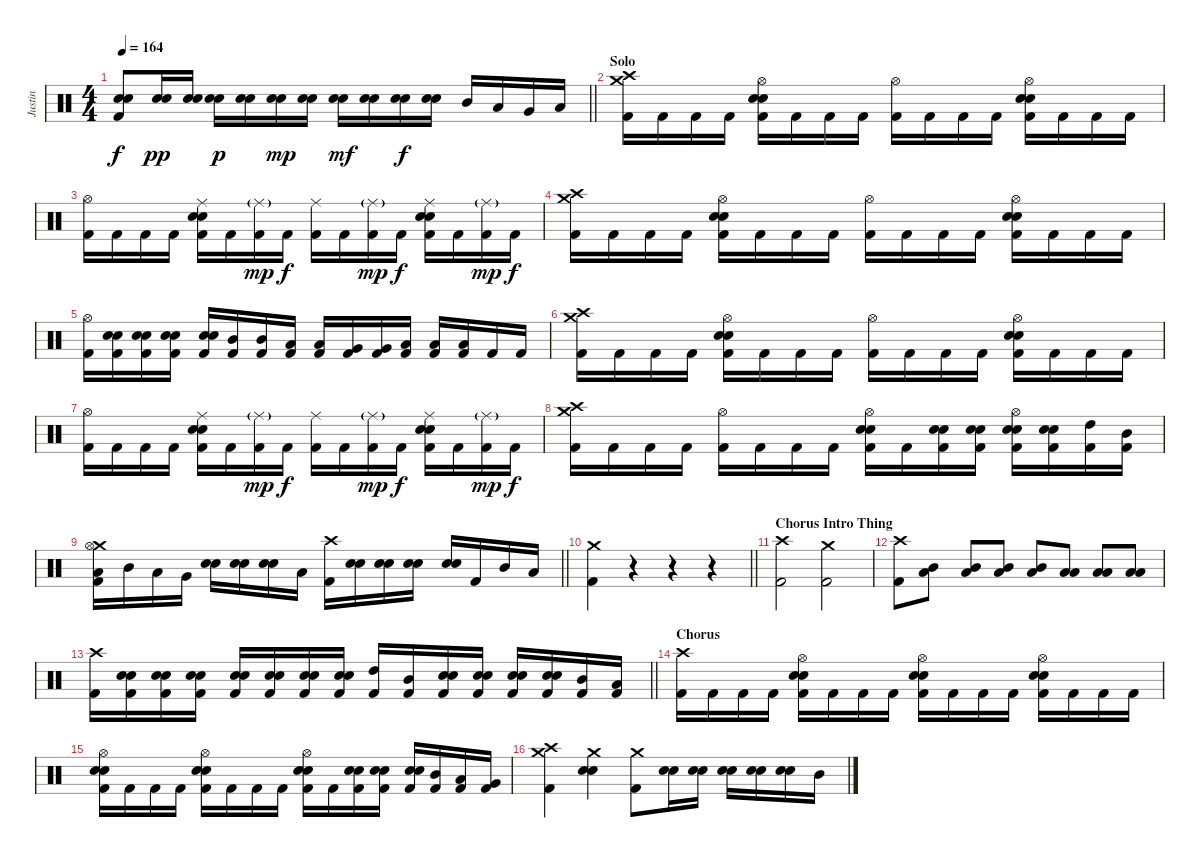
\track ("Justin" "Justin") {instrument percussion}
\staff {score}
\articulation defaults
\ts (4 4)
\tempo 164
\clef neutral
\barLineRight lightlight
\ks c
("Electric Snare (hit)" "Snare (hit) 2" "Kick (hit) 2").8{dy f} ("Electric Snare (hit)" "Snare (hit) 2").16{dy pp} ("Electric Snare (hit)" "Snare (hit) 2").16 ("Electric Snare (hit)" "Snare (hit) 2").16{dy p} ("Electric Snare (hit)" "Snare (hit) 2").16 ("Electric Snare (hit)" "Snare (hit) 2").16{dy mp} ("Electric Snare (hit)" "Snare (hit) 2").16 ("Electric Snare (hit)" "Snare (hit) 2").16{dy mf} ("Electric Snare (hit)" "Snare (hit) 2").16 ("Electric Snare (hit)" "Snare (hit) 2").16{dy f} ("Electric Snare (hit)" "Snare (hit) 2").16 "Mid Tom (hit)".16 "Low Tom (hit)".16 "Very Low Tom (hit)".16 "Low Floor Tom (hit)".16 |
\section ("" "Solo")
("Crash medium (hit)" "Crash high (hit)" "Kick (hit) 2").16 "Kick (hit) 2".16 "Kick (hit) 2".16 "Kick (hit) 2".16 ("Hi-Hat (open)" "Electric Snare (hit)" "Snare (hit) 2" "Kick (hit) 2").16 "Kick (hit) 2".16 "Kick (hit) 2".16 "Kick (hit) 2".16 ("Hi-Hat (open)" "Kick (hit) 2").16 "Kick (hit) 2".16 "Kick (hit) 2".16 "Kick (hit) 2".16 ("Hi-Hat (open)" "Electric Snare (hit)" "Snare (hit) 2" "Kick (hit) 2").16 "Kick (hit) 2".16 "Kick (hit) 2".16 "Kick (hit) 2".16 |
("Hi-Hat (open)" "Kick (hit) 2").16 "Kick (hit) 2".16 "Kick (hit) 2".16 "Kick (hit) 2".16 ("Ride (middle)" "Electric Snare (hit)" "Snare (hit) 2" "Kick (hit) 2").16 "Kick (hit) 2".16 ("Ride (middle)"{g} "Kick (hit) 2").16{dy mp} "Kick (hit) 2".16{dy f} ("Ride (middle)" "Kick (hit) 2").16 "Kick (hit) 2".16 ("Ride (middle)"{g} "Kick (hit) 2").16{dy mp} "Kick (hit) 2".16{dy f} ("Ride (middle)" "Electric Snare (hit)" "Snare (hit) 2" "Kick (hit) 2").16 "Kick (hit) 2".16 ("Ride (middle)"{g} "Kick (hit) 2").16{dy mp} "Kick (hit) 2".16{dy f} |
("Crash medium (hit)" "Crash high (hit)" "Kick (hit) 2").16 "Kick (hit) 2".16 "Kick (hit) 2".16 "Kick (hit) 2".16 ("Hi-Hat (open)" "Electric Snare (hit)" "Snare (hit) 2" "Kick (hit) 2").16 "Kick (hit) 2".16 "Kick (hit) 2".16 "Kick (hit) 2".16 ("Hi-Hat (open)" "Kick (hit) 2").16 "Kick (hit) 2".16 "Kick (hit) 2".16 "Kick (hit) 2".16 ("Hi-Hat (open)" "Electric Snare (hit)" "Snare (hit) 2" "Kick (hit) 2").16 "Kick (hit) 2".16 "Kick (hit) 2".16 "Kick (hit) 2".16 |
("Hi-Hat (open)" "Kick (hit) 2").16 ("Electric Snare (hit)" "Snare (hit) 2" "Kick (hit) 2").16 ("Electric Snare (hit)" "Snare (hit) 2" "Kick (hit) 2").16 ("Electric Snare (hit)" "Snare (hit) 2" "Kick (hit) 2").16 ("Electric Snare (hit)" "Snare (hit) 2" "Kick (hit) 2").16 ("Mid Tom (hit)" "Kick (hit) 2").16 ("Mid Tom (hit)" "Kick (hit) 2").16 ("Low Tom (hit)" "Kick (hit) 2").16 ("Low Tom (hit)" "Kick (hit) 2").16 ("Very Low Tom (hit)" "Kick (hit) 2").16 ("Very Low Tom (hit)" "Kick (hit) 2").16 ("Low Floor Tom (hit)" "Kick (hit) 2").16 ("Low Floor Tom (hit)" "Kick (hit) 2").16 ("Low Floor Tom (hit)" "Kick (hit) 2").16 "Kick (hit) 2".16 "Kick (hit) 2".16 |
("Crash medium (hit)" "Crash high (hit)" "Kick (hit) 2").16 "Kick (hit) 2".16 "Kick (hit) 2".16 "Kick (hit) 2".16 ("Hi-Hat (open)" "Electric Snare (hit)" "Snare (hit) 2" "Kick (hit) 2").16 "Kick (hit) 2".16 "Kick (hit) 2".16 "Kick (hit) 2".16 ("Hi-Hat (open)" "Kick (hit) 2").16 "Kick (hit) 2".16 "Kick (hit) 2".16 "Kick (hit) 2".16 ("Hi-Hat (open)" "Electric Snare (hit)" "Snare (hit) 2" "Kick (hit) 2").16 "Kick (hit) 2".16 "Kick (hit) 2".16 "Kick (hit) 2".16 |
("Hi-Hat (open)" "Kick (hit) 2").16 "Kick (hit) 2".16 "Kick (hit) 2".16 "Kick (hit) 2".16 ("Ride (middle)" "Electric Snare (hit)" "Snare (hit) 2" "Kick (hit) 2").16 "Kick (hit) 2".16 ("Ride (middle)"{g} "Kick (hit) 2").16{dy mp} "Kick (hit) 2".16{dy f} ("Ride (middle)" "Kick (hit) 2").16 "Kick (hit) 2".16 ("Ride (middle)"{g} "Kick (hit) 2").16{dy mp} "Kick (hit) 2".16{dy f} ("Ride (middle)" "Electric Snare (hit)" "Snare (hit) 2" "Kick (hit) 2").16 "Kick (hit) 2".16 ("Ride (middle)"{g} "Kick (hit) 2").16{dy mp} "Kick (hit) 2".16{dy f} |
("Crash medium (hit)" "Crash high (hit)" "Kick (hit) 2").16 "Kick (hit) 2".16 "Kick (hit) 2".16 "Kick (hit) 2".16 ("Hi-Hat (open)" "Kick (hit) 2").16 "Kick (hit) 2".16 "Kick (hit) 2".16 "Kick (hit) 2".16 ("Hi-Hat (open)" "Electric Snare (hit)" "Snare (hit) 2" "Kick (hit) 2").16 "Kick (hit) 2".16 ("Electric Snare (hit)" "Snare (hit) 2" "Kick (hit) 2").16 ("Electric Snare (hit)" "Snare (hit) 2" "Kick (hit) 2").16 ("Hi-Hat (open)" "Electric Snare (hit)" "Snare (hit) 2" "Kick (hit) 2").16 ("Electric Snare (hit)" "Snare (hit) 2" "Kick (hit) 2").16 ("High Tom (hit)" "Kick (hit) 2").16 ("Mid Tom (hit)" "Kick (hit) 2").16 |
\barLineRight lightlight
("Crash medium (hit)" "Hi-Hat (open)" "Low Tom (hit)" "Kick (hit) 2").16 "Mid Tom (hit)".16 "Low Tom (hit)".16 "Very Low Tom (hit)".16 ("Electric Snare (hit)" "Snare (hit) 2").16 ("Electric Snare (hit)" "Snare (hit) 2").16 ("Electric Snare (hit)" "Snare (hit) 2").16 "Low Tom (hit)".16 ("Crash high (hit)" "Kick (hit) 2").16 ("Electric Snare (hit)" "Snare (hit) 2").16 ("Electric Snare (hit)" "Snare (hit) 2").16 ("Electric Snare (hit)" "Snare (hit) 2").16 ("Electric Snare (hit)" "Snare (hit) 2").16 "Kick (hit) 2".16 "Mid Tom (hit)".16 "Low Tom (hit)".16 |
\barLineRight lightlight
("Crash medium (hit)" "Kick (hit) 2").4 r.4{volume 0} r.4 r.4 |
\section ("" "Chorus Intro Thing")
("Crash high (hit)" "Kick (hit) 2").2{volume 16} ("Crash medium (hit)" "Kick (hit) 2").2 |
("Crash high (hit)" "Kick (hit) 2").8 ("Mid Tom (hit)" "Low Floor Tom (hit)").8 ("Mid Tom (hit)" "Low Floor Tom (hit)").8 ("Mid Tom (hit)" "Low Floor Tom (hit)").8 ("Mid Tom (hit)" "Low Floor Tom (hit)").8 ("Low Tom (hit)" "Low Floor Tom (hit)").8 ("Low Tom (hit)" "Low Floor Tom (hit)").8 ("Low Tom (hit)" "Low Floor Tom (hit)").8 |
\barLineRight lightlight
("Crash high (hit)" "Kick (hit) 2").16 ("Electric Snare (hit)" "Snare (hit) 2" "Kick (hit) 2").16 ("Electric Snare (hit)" "Snare (hit) 2" "Kick (hit) 2").16 ("Electric Snare (hit)" "Snare (hit) 2" "Kick (hit) 2").16 ("Electric Snare (hit)" "Snare (hit) 2" "Kick (hit) 2").16 ("Electric Snare (hit)" "Snare (hit) 2" "Kick (hit) 2").16 ("Electric Snare (hit)" "Snare (hit) 2" "Kick (hit) 2").16 ("Electric Snare (hit)" "Snare (hit) 2" "Kick (hit) 2").16 ("High Tom (hit)" "Kick (hit) 2").16 ("Mid Tom (hit)" "Kick (hit) 2").16 ("Electric Snare (hit)" "Snare (hit) 2" "Kick (hit) 2").16 ("Electric Snare (hit)" "Snare (hit) 2" "Kick (hit) 2").16 ("Electric Snare (hit)" "Snare (hit) 2" "Kick (hit) 2").16 ("Electric Snare (hit)" "Snare (hit) 2" "Kick (hit) 2").16 ("Mid Tom (hit)" "Kick (hit) 2").16 ("Low Tom (hit)" "Kick (hit) 2").16 |
\section ("" "Chorus")
("Crash high (hit)" "Kick (hit) 2").16 "Kick (hit) 2".16 "Kick (hit) 2".16 "Kick (hit) 2".16 ("Hi-Hat (open)" "Electric Snare (hit)" "Snare (hit) 2" "Kick (hit) 2").16 "Kick (hit) 2".16 "Kick (hit) 2".16 "Kick (hit) 2".16 ("Hi-Hat (open)" "Electric Snare (hit)" "Snare (hit) 2" "Kick (hit) 2").16 "Kick (hit) 2".16 "Kick (hit) 2".16 "Kick (hit) 2".16 ("Hi-Hat (open)" "Electric Snare (hit)" "Snare (hit) 2" "Kick (hit) 2").16 "Kick (hit) 2".16 "Kick (hit) 2".16 "Kick (hit) 2".16 |
("Hi-Hat (open)" "Electric Snare (hit)" "Snare (hit) 2" "Kick (hit) 2").16 "Kick (hit) 2".16 "Kick (hit) 2".16 "Kick (hit) 2".16 ("Hi-Hat (open)" "Electric Snare (hit)" "Snare (hit) 2" "Kick (hit) 2").16 "Kick (hit) 2".16 "Kick (hit) 2".16 "Kick (hit) 2".16 ("Hi-Hat (open)" "Electric Snare (hit)" "Snare (hit) 2" "Kick (hit) 2").16 "Kick (hit) 2".16 ("Electric Snare (hit)" "Snare (hit) 2" "Kick (hit) 2").16 ("Electric Snare (hit)" "Snare (hit) 2" "Kick (hit) 2").16 ("Electric Snare (hit)" "Snare (hit) 2" "Kick (hit) 2").16 ("Mid Tom (hit)" "Kick (hit) 2").16 ("Low Tom (hit)" "Kick (hit) 2").16 ("Very Low Tom (hit)" "Kick (hit) 2").16 |
("Crash medium (hit)" "Crash high (hit)" "Kick (hit) 2").4 ("Crash medium (hit)" "Electric Snare (hit)" "Snare (hit) 2").4 ("Crash medium (hit)" "Kick (hit) 2").8 ("Electric Snare (hit)" "Snare (hit) 2").16 ("Electric Snare (hit)" "Snare (hit) 2").16 ("Electric Snare (hit)" "Snare (hit) 2").16 ("Electric Snare (hit)" "Snare (hit) 2").16 ("Electric Snare (hit)" "Snare (hit) 2").16 "Mid Tom (hit)".16
